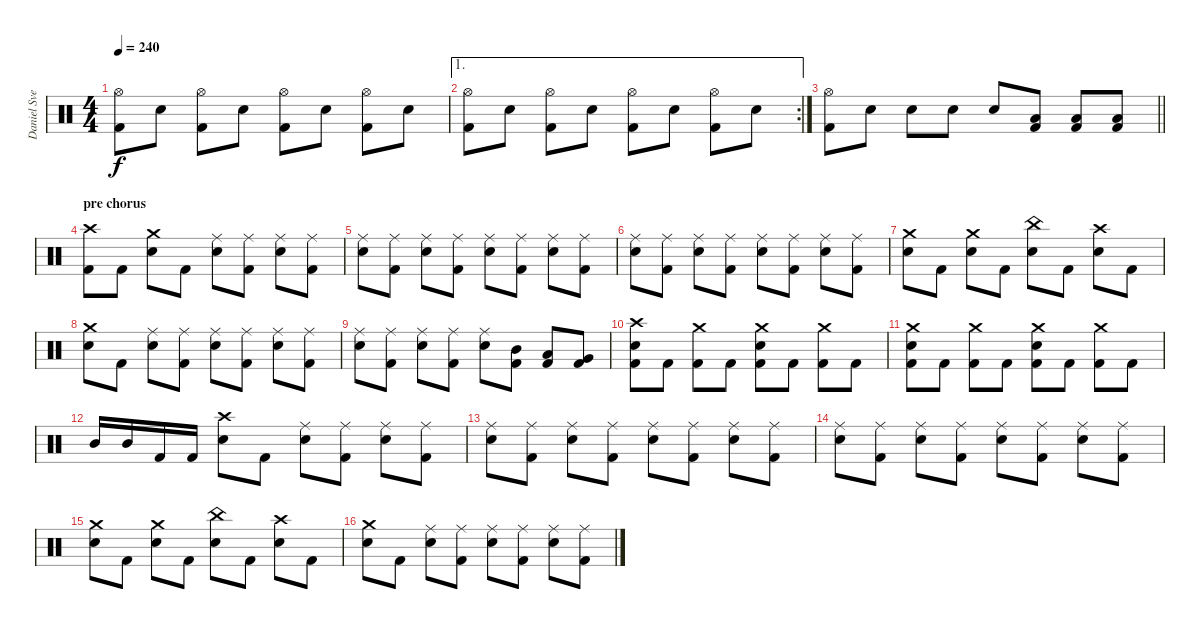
\track ("Daniel Svensson" "Daniel Sve") {instrument percussion}
\staff {score}
\articulation defaults
\ts (4 4)
\tempo 240
\clef neutral
\ks c
("Hi-Hat (open)" "Kick (hit) 2").8{dy f} "Electric Snare (hit)".8 ("Hi-Hat (open)" "Kick (hit) 2").8 "Electric Snare (hit)".8 ("Hi-Hat (open)" "Kick (hit) 2").8 "Electric Snare (hit)".8 ("Hi-Hat (open)" "Kick (hit) 2").8 "Electric Snare (hit)".8 |
\ae 1
\rc 2
("Hi-Hat (open)" "Kick (hit) 2").8 "Electric Snare (hit)".8 ("Hi-Hat (open)" "Kick (hit) 2").8 "Electric Snare (hit)".8 ("Hi-Hat (open)" "Kick (hit) 2").8 "Electric Snare (hit)".8 ("Hi-Hat (open)" "Kick (hit) 2").8 "Electric Snare (hit)".8 |
\barLineRight lightlight
("Hi-Hat (open)" "Kick (hit) 2").8 "Electric Snare (hit)".8 "Electric Snare (hit)".8 "Electric Snare (hit)".8 "Electric Snare (hit)".8 ("Low Tom (hit)" "Kick (hit) 2").8 ("Low Tom (hit)" "Kick (hit) 2").8 ("Low Tom (hit)" "Kick (hit) 2").8 |
\section ("" "pre chorus")
("Crash high (hit)" "Kick (hit) 2").8 "Kick (hit) 2".8 ("Crash medium (hit)" "Electric Snare (hit)").8 "Kick (hit) 2".8 ("Ride (middle)" "Electric Snare (hit)").8 ("Ride (middle)" "Kick (hit) 2").8 ("Ride (middle)" "Electric Snare (hit)").8 ("Ride (middle)" "Kick (hit) 2").8 |
("Ride (middle)" "Electric Snare (hit)").8 ("Ride (middle)" "Kick (hit) 2").8 ("Ride (middle)" "Electric Snare (hit)").8 ("Ride (middle)" "Kick (hit) 2").8 ("Ride (middle)" "Electric Snare (hit)").8 ("Ride (middle)" "Kick (hit) 2").8 ("Ride (middle)" "Electric Snare (hit)").8 ("Ride (middle)" "Kick (hit) 2").8 |
("Ride (middle)" "Electric Snare (hit)").8 ("Ride (middle)" "Kick (hit) 2").8 ("Ride (middle)" "Electric Snare (hit)").8 ("Ride (middle)" "Kick (hit) 2").8 ("Ride (middle)" "Electric Snare (hit)").8 ("Ride (middle)" "Kick (hit) 2").8 ("Ride (middle)" "Electric Snare (hit)").8 ("Ride (middle)" "Kick (hit) 2").8 |
("Crash medium (hit)" "Electric Snare (hit)").8 "Kick (hit) 2".8 ("Crash medium (hit)" "Electric Snare (hit)").8 "Kick (hit) 2".8 ("China (hit)" "Electric Snare (hit)").8 "Kick (hit) 2".8 ("Crash high (hit)" "Electric Snare (hit)").8 "Kick (hit) 2".8 |
("Crash medium (hit)" "Electric Snare (hit)").8 "Kick (hit) 2".8 ("Ride (middle)" "Electric Snare (hit)").8 ("Ride (middle)" "Kick (hit) 2").8 ("Ride (middle)" "Electric Snare (hit)").8 ("Ride (middle)" "Kick (hit) 2").8 ("Ride (middle)" "Electric Snare (hit)").8 ("Ride (middle)" "Kick (hit) 2").8 |
("Ride (middle)" "Electric Snare (hit)").8 ("Ride (middle)" "Kick (hit) 2").8 ("Ride (middle)" "Electric Snare (hit)").8 ("Ride (middle)" "Kick (hit) 2").8 ("Ride (middle)" "Electric Snare (hit)").8 ("Mid Tom (hit)" "Kick (hit) 2").8 ("Low Tom (hit)" "Kick (hit) 2").8 ("Very Low Tom (hit)" "Kick (hit) 2").8 |
("Crash high (hit)" "Electric Snare (hit)" "Kick (hit) 2").8 "Kick (hit) 2".8 ("Crash medium (hit)" "Kick (hit) 2").8 "Kick (hit) 2".8 ("Crash medium (hit)" "Electric Snare (hit)" "Kick (hit) 2").8 "Kick (hit) 2".8 ("Crash medium (hit)" "Kick (hit) 2").8 "Kick (hit) 2".8 |
("Crash medium (hit)" "Electric Snare (hit)" "Kick (hit) 2").8 "Kick (hit) 2".8 ("Crash medium (hit)" "Kick (hit) 2").8 "Kick (hit) 2".8 ("Crash medium (hit)" "Electric Snare (hit)" "Kick (hit) 2").8 "Kick (hit) 2".8 ("Crash medium (hit)" "Kick (hit) 2").8 "Kick (hit) 2".8 |
"Mid Tom (hit)".16 "Mid Tom (hit)".16 "Kick (hit) 2".16 "Kick (hit) 2".16 ("Crash high (hit)" "Electric Snare (hit)").8 "Kick (hit) 2".8 ("Ride (middle)" "Electric Snare (hit)").8 ("Ride (middle)" "Kick (hit) 2").8 ("Ride (middle)" "Electric Snare (hit)").8 ("Ride (middle)" "Kick (hit) 2").8 |
("Ride (middle)" "Electric Snare (hit)").8 ("Ride (middle)" "Kick (hit) 2").8 ("Ride (middle)" "Electric Snare (hit)").8 ("Ride (middle)" "Kick (hit) 2").8 ("Ride (middle)" "Electric Snare (hit)").8 ("Ride (middle)" "Kick (hit) 2").8 ("Ride (middle)" "Electric Snare (hit)").8 ("Ride (middle)" "Kick (hit) 2").8 |
("Ride (middle)" "Electric Snare (hit)").8 ("Ride (middle)" "Kick (hit) 2").8 ("Ride (middle)" "Electric Snare (hit)").8 ("Ride (middle)" "Kick (hit) 2").8 ("Ride (middle)" "Electric Snare (hit)").8 ("Ride (middle)" "Kick (hit) 2").8 ("Ride (middle)" "Electric Snare (hit)").8 ("Ride (middle)" "Kick (hit) 2").8 |
("Crash medium (hit)" "Electric Snare (hit)").8 "Kick (hit) 2".8 ("Crash medium (hit)" "Electric Snare (hit)").8 "Kick (hit) 2".8 ("China (hit)" "Electric Snare (hit)").8 "Kick (hit) 2".8 ("Crash high (hit)" "Electric Snare (hit)").8 "Kick (hit) 2".8 |
("Crash medium (hit)" "Electric Snare (hit)").8 "Kick (hit) 2".8 ("Ride (middle)" "Electric Snare (hit)").8 ("Ride (middle)" "Kick (hit) 2").8 ("Ride (middle)" "Electric Snare (hit)").8 ("Ride (middle)" "Kick (hit) 2").8 ("Ride (middle)" "Electric Snare (hit)").8 ("Ride (middle)" "Kick (hit) 2").8
